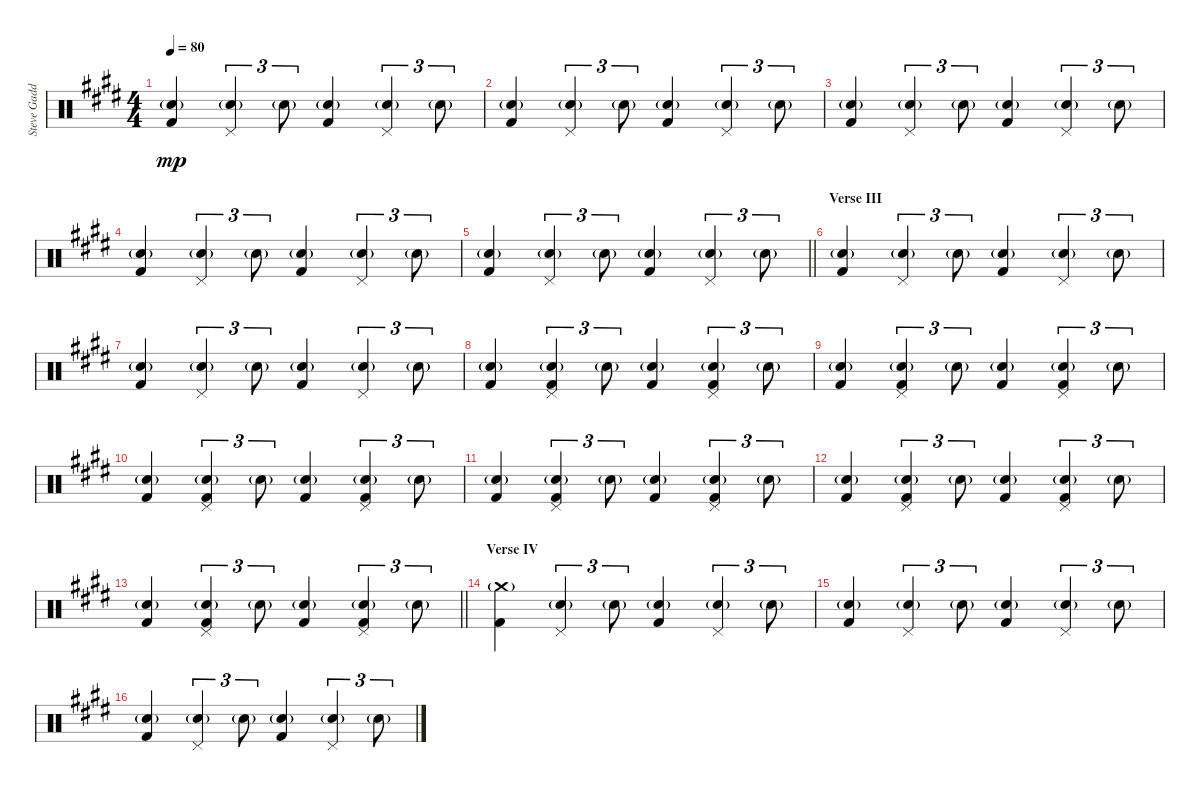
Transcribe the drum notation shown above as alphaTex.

\track ("Steve Gadd Drums" "Steve Gadd") {instrument percussion}
\staff {score}
\articulation defaults
\ts (4 4)
\tempo 80
\clef neutral
\ks e
("Snare (hit) 2"{g} "Kick (hit) 2").4{dy mp} ("Snare (hit) 2"{g} "Pedal Hi-Hat (hit)").4{tu (3 2)} "Snare (hit) 2"{g}.8{tu (3 2)} ("Snare (hit) 2"{g} "Kick (hit) 2").4 ("Snare (hit) 2"{g} "Pedal Hi-Hat (hit)").4{tu (3 2)} "Snare (hit) 2"{g}.8{tu (3 2)} |
("Snare (hit) 2"{g} "Kick (hit) 2").4 ("Snare (hit) 2"{g} "Pedal Hi-Hat (hit)").4{tu (3 2)} "Snare (hit) 2"{g}.8{tu (3 2)} ("Snare (hit) 2"{g} "Kick (hit) 2").4 ("Snare (hit) 2"{g} "Pedal Hi-Hat (hit)").4{tu (3 2)} "Snare (hit) 2"{g}.8{tu (3 2)} |
("Snare (hit) 2"{g} "Kick (hit) 2").4 ("Snare (hit) 2"{g} "Pedal Hi-Hat (hit)").4{tu (3 2)} "Snare (hit) 2"{g}.8{tu (3 2)} ("Snare (hit) 2"{g} "Kick (hit) 2").4 ("Snare (hit) 2"{g} "Pedal Hi-Hat (hit)").4{tu (3 2)} "Snare (hit) 2"{g}.8{tu (3 2)} |
("Snare (hit) 2"{g} "Kick (hit) 2").4 ("Snare (hit) 2"{g} "Pedal Hi-Hat (hit)").4{tu (3 2)} "Snare (hit) 2"{g}.8{tu (3 2)} ("Snare (hit) 2"{g} "Kick (hit) 2").4 ("Snare (hit) 2"{g} "Pedal Hi-Hat (hit)").4{tu (3 2)} "Snare (hit) 2"{g}.8{tu (3 2)} |
\barLineRight lightlight
("Snare (hit) 2"{g} "Kick (hit) 2").4 ("Snare (hit) 2"{g} "Pedal Hi-Hat (hit)").4{tu (3 2)} "Snare (hit) 2"{g}.8{tu (3 2)} ("Snare (hit) 2"{g} "Kick (hit) 2").4 ("Snare (hit) 2"{g} "Pedal Hi-Hat (hit)").4{tu (3 2)} "Snare (hit) 2"{g}.8{tu (3 2)} |
\section ("" "Verse III")
("Snare (hit) 2"{g} "Kick (hit) 2").4 ("Snare (hit) 2"{g} "Pedal Hi-Hat (hit)").4{tu (3 2)} "Snare (hit) 2"{g}.8{tu (3 2)} ("Snare (hit) 2"{g} "Kick (hit) 2").4 ("Snare (hit) 2"{g} "Pedal Hi-Hat (hit)").4{tu (3 2)} "Snare (hit) 2"{g}.8{tu (3 2)} |
("Snare (hit) 2"{g} "Kick (hit) 2").4 ("Snare (hit) 2"{g} "Pedal Hi-Hat (hit)").4{tu (3 2)} "Snare (hit) 2"{g}.8{tu (3 2)} ("Snare (hit) 2"{g} "Kick (hit) 2").4 ("Snare (hit) 2"{g} "Pedal Hi-Hat (hit)").4{tu (3 2)} "Snare (hit) 2"{g}.8{tu (3 2)} |
("Snare (hit) 2"{g} "Kick (hit) 2").4 ("Snare (hit) 2"{g} "Kick (hit) 2" "Pedal Hi-Hat (hit)").4{tu (3 2)} "Snare (hit) 2"{g}.8{tu (3 2)} ("Snare (hit) 2"{g} "Kick (hit) 2").4 ("Snare (hit) 2"{g} "Kick (hit) 2" "Pedal Hi-Hat (hit)").4{tu (3 2)} "Snare (hit) 2"{g}.8{tu (3 2)} |
("Snare (hit) 2"{g} "Kick (hit) 2").4 ("Snare (hit) 2"{g} "Kick (hit) 2" "Pedal Hi-Hat (hit)").4{tu (3 2)} "Snare (hit) 2"{g}.8{tu (3 2)} ("Snare (hit) 2"{g} "Kick (hit) 2").4 ("Snare (hit) 2"{g} "Kick (hit) 2" "Pedal Hi-Hat (hit)").4{tu (3 2)} "Snare (hit) 2"{g}.8{tu (3 2)} |
("Snare (hit) 2"{g} "Kick (hit) 2").4 ("Snare (hit) 2"{g} "Kick (hit) 2" "Pedal Hi-Hat (hit)").4{tu (3 2)} "Snare (hit) 2"{g}.8{tu (3 2)} ("Snare (hit) 2"{g} "Kick (hit) 2").4 ("Snare (hit) 2"{g} "Kick (hit) 2" "Pedal Hi-Hat (hit)").4{tu (3 2)} "Snare (hit) 2"{g}.8{tu (3 2)} |
("Snare (hit) 2"{g} "Kick (hit) 2").4 ("Snare (hit) 2"{g} "Kick (hit) 2" "Pedal Hi-Hat (hit)").4{tu (3 2)} "Snare (hit) 2"{g}.8{tu (3 2)} ("Snare (hit) 2"{g} "Kick (hit) 2").4 ("Snare (hit) 2"{g} "Kick (hit) 2" "Pedal Hi-Hat (hit)").4{tu (3 2)} "Snare (hit) 2"{g}.8{tu (3 2)} |
("Snare (hit) 2"{g} "Kick (hit) 2").4 ("Snare (hit) 2"{g} "Kick (hit) 2" "Pedal Hi-Hat (hit)").4{tu (3 2)} "Snare (hit) 2"{g}.8{tu (3 2)} ("Snare (hit) 2"{g} "Kick (hit) 2").4 ("Snare (hit) 2"{g} "Kick (hit) 2" "Pedal Hi-Hat (hit)").4{tu (3 2)} "Snare (hit) 2"{g}.8{tu (3 2)} |
\barLineRight lightlight
("Snare (hit) 2"{g} "Kick (hit) 2").4 ("Snare (hit) 2"{g} "Kick (hit) 2" "Pedal Hi-Hat (hit)").4{tu (3 2)} "Snare (hit) 2"{g}.8{tu (3 2)} ("Snare (hit) 2"{g} "Kick (hit) 2").4 ("Snare (hit) 2"{g} "Kick (hit) 2" "Pedal Hi-Hat (hit)").4{tu (3 2)} "Snare (hit) 2"{g}.8{tu (3 2)} |
\section ("" "Verse IV")
("Crash medium (hit)"{g} "Kick (hit) 2").4 ("Snare (hit) 2"{g} "Pedal Hi-Hat (hit)").4{tu (3 2)} "Snare (hit) 2"{g}.8{tu (3 2)} ("Snare (hit) 2"{g} "Kick (hit) 2").4 ("Snare (hit) 2"{g} "Pedal Hi-Hat (hit)").4{tu (3 2)} "Snare (hit) 2"{g}.8{tu (3 2)} |
("Snare (hit) 2"{g} "Kick (hit) 2").4 ("Snare (hit) 2"{g} "Pedal Hi-Hat (hit)").4{tu (3 2)} "Snare (hit) 2"{g}.8{tu (3 2)} ("Snare (hit) 2"{g} "Kick (hit) 2").4 ("Snare (hit) 2"{g} "Pedal Hi-Hat (hit)").4{tu (3 2)} "Snare (hit) 2"{g}.8{tu (3 2)} |
("Snare (hit) 2"{g} "Kick (hit) 2").4 ("Snare (hit) 2"{g} "Pedal Hi-Hat (hit)").4{tu (3 2)} "Snare (hit) 2"{g}.8{tu (3 2)} ("Snare (hit) 2"{g} "Kick (hit) 2").4 ("Snare (hit) 2"{g} "Pedal Hi-Hat (hit)").4{tu (3 2)} "Snare (hit) 2"{g}.8{tu (3 2)}
